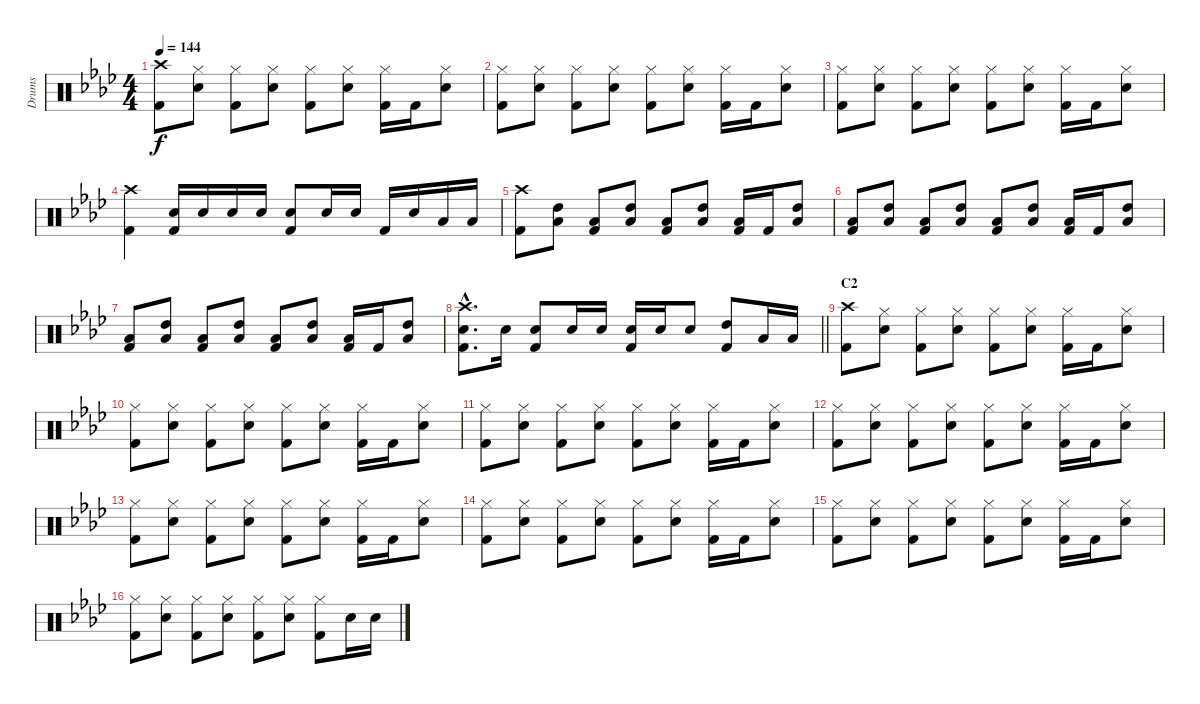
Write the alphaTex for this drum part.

\track ("Drums" "Drums") {instrument percussion}
\staff {score}
\articulation defaults
\ts (4 4)
\tempo 144
\clef neutral
\ks ab
("Crash high (hit)" "Kick (hit) 2").8{dy f} ("Hi-Hat (closed)" "Snare (hit) 2").8 ("Hi-Hat (closed)" "Kick (hit) 2").8 ("Hi-Hat (closed)" "Snare (hit) 2").8 ("Hi-Hat (closed)" "Kick (hit) 2").8 ("Hi-Hat (closed)" "Snare (hit) 2").8 ("Hi-Hat (closed)" "Kick (hit) 2").16 "Kick (hit) 2".16 ("Hi-Hat (closed)" "Snare (hit) 2").8 |
("Hi-Hat (closed)" "Kick (hit) 2").8 ("Hi-Hat (closed)" "Snare (hit) 2").8 ("Hi-Hat (closed)" "Kick (hit) 2").8 ("Hi-Hat (closed)" "Snare (hit) 2").8 ("Hi-Hat (closed)" "Kick (hit) 2").8 ("Hi-Hat (closed)" "Snare (hit) 2").8 ("Hi-Hat (closed)" "Kick (hit) 2").16 "Kick (hit) 2".16 ("Hi-Hat (closed)" "Snare (hit) 2").8 |
("Hi-Hat (closed)" "Kick (hit) 2").8 ("Hi-Hat (closed)" "Snare (hit) 2").8 ("Hi-Hat (closed)" "Kick (hit) 2").8 ("Hi-Hat (closed)" "Snare (hit) 2").8 ("Hi-Hat (closed)" "Kick (hit) 2").8 ("Hi-Hat (closed)" "Snare (hit) 2").8 ("Hi-Hat (closed)" "Kick (hit) 2").16 "Kick (hit) 2".16 ("Hi-Hat (closed)" "Snare (hit) 2").8 |
("Crash high (hit)" "Kick (hit) 2").4 ("Snare (hit) 2" "Kick (hit) 2").16 "Snare (hit) 2".16 "Snare (hit) 2".16 "Snare (hit) 2".16 ("Snare (hit) 2" "Kick (hit) 2").8 "Snare (hit) 2".16 "Snare (hit) 2".16 "Kick (hit) 2".16 "Snare (hit) 2".16 "Low Tom (hit)".16 "Low Tom (hit)".16 |
("Crash high (hit)" "Kick (hit) 2").8 ("High Tom (hit)" "Low Tom (hit)").8 ("Low Tom (hit)" "Kick (hit) 2").8 ("High Tom (hit)" "Low Tom (hit)").8 ("Low Tom (hit)" "Kick (hit) 2").8 ("High Tom (hit)" "Low Tom (hit)").8 ("Low Tom (hit)" "Kick (hit) 2").16 "Kick (hit) 2".16 ("High Tom (hit)" "Low Tom (hit)").8 |
("Low Tom (hit)" "Kick (hit) 2").8 ("High Tom (hit)" "Low Tom (hit)").8 ("Low Tom (hit)" "Kick (hit) 2").8 ("High Tom (hit)" "Low Tom (hit)").8 ("Low Tom (hit)" "Kick (hit) 2").8 ("High Tom (hit)" "Low Tom (hit)").8 ("Low Tom (hit)" "Kick (hit) 2").16 "Kick (hit) 2".16 ("High Tom (hit)" "Low Tom (hit)").8 |
("Low Tom (hit)" "Kick (hit) 2").8 ("High Tom (hit)" "Low Tom (hit)").8 ("Low Tom (hit)" "Kick (hit) 2").8 ("High Tom (hit)" "Low Tom (hit)").8 ("Low Tom (hit)" "Kick (hit) 2").8 ("High Tom (hit)" "Low Tom (hit)").8 ("Low Tom (hit)" "Kick (hit) 2").16 "Kick (hit) 2".16 ("High Tom (hit)" "Low Tom (hit)").8 |
\barLineRight lightlight
("Crash high (hit)"{hac} "Snare (hit) 2"{hac} "Kick (hit) 2"{hac}).8{d} "Snare (hit) 2".16 ("Snare (hit) 2" "Kick (hit) 2").8 "Snare (hit) 2".16 "Snare (hit) 2".16 ("Snare (hit) 2" "Kick (hit) 2").16 "Snare (hit) 2".16 "Snare (hit) 2".8 ("High Tom (hit)" "Kick (hit) 2").8 "Low Tom (hit)".16 "Low Tom (hit)".16 |
\section ("" "C2")
("Crash high (hit)" "Kick (hit) 2").8 ("Hi-Hat (closed)" "Snare (hit) 2").8 ("Hi-Hat (closed)" "Kick (hit) 2").8 ("Hi-Hat (closed)" "Snare (hit) 2").8 ("Hi-Hat (closed)" "Kick (hit) 2").8 ("Hi-Hat (closed)" "Snare (hit) 2").8 ("Hi-Hat (closed)" "Kick (hit) 2").16 "Kick (hit) 2".16 ("Hi-Hat (closed)" "Snare (hit) 2").8 |
("Hi-Hat (closed)" "Kick (hit) 2").8 ("Hi-Hat (closed)" "Snare (hit) 2").8 ("Hi-Hat (closed)" "Kick (hit) 2").8 ("Hi-Hat (closed)" "Snare (hit) 2").8 ("Hi-Hat (closed)" "Kick (hit) 2").8 ("Hi-Hat (closed)" "Snare (hit) 2").8 ("Hi-Hat (closed)" "Kick (hit) 2").16 "Kick (hit) 2".16 ("Hi-Hat (closed)" "Snare (hit) 2").8 |
("Hi-Hat (closed)" "Kick (hit) 2").8 ("Hi-Hat (closed)" "Snare (hit) 2").8 ("Hi-Hat (closed)" "Kick (hit) 2").8 ("Hi-Hat (closed)" "Snare (hit) 2").8 ("Hi-Hat (closed)" "Kick (hit) 2").8 ("Hi-Hat (closed)" "Snare (hit) 2").8 ("Hi-Hat (closed)" "Kick (hit) 2").16 "Kick (hit) 2".16 ("Hi-Hat (closed)" "Snare (hit) 2").8 |
("Hi-Hat (closed)" "Kick (hit) 2").8 ("Hi-Hat (closed)" "Snare (hit) 2").8 ("Hi-Hat (closed)" "Kick (hit) 2").8 ("Hi-Hat (closed)" "Snare (hit) 2").8 ("Hi-Hat (closed)" "Kick (hit) 2").8 ("Hi-Hat (closed)" "Snare (hit) 2").8 ("Hi-Hat (closed)" "Kick (hit) 2").16 "Kick (hit) 2".16 ("Hi-Hat (closed)" "Snare (hit) 2").8 |
("Hi-Hat (closed)" "Kick (hit) 2").8 ("Hi-Hat (closed)" "Snare (hit) 2").8 ("Hi-Hat (closed)" "Kick (hit) 2").8 ("Hi-Hat (closed)" "Snare (hit) 2").8 ("Hi-Hat (closed)" "Kick (hit) 2").8 ("Hi-Hat (closed)" "Snare (hit) 2").8 ("Hi-Hat (closed)" "Kick (hit) 2").16 "Kick (hit) 2".16 ("Hi-Hat (closed)" "Snare (hit) 2").8 |
("Hi-Hat (closed)" "Kick (hit) 2").8 ("Hi-Hat (closed)" "Snare (hit) 2").8 ("Hi-Hat (closed)" "Kick (hit) 2").8 ("Hi-Hat (closed)" "Snare (hit) 2").8 ("Hi-Hat (closed)" "Kick (hit) 2").8 ("Hi-Hat (closed)" "Snare (hit) 2").8 ("Hi-Hat (closed)" "Kick (hit) 2").16 "Kick (hit) 2".16 ("Hi-Hat (closed)" "Snare (hit) 2").8 |
("Hi-Hat (closed)" "Kick (hit) 2").8 ("Hi-Hat (closed)" "Snare (hit) 2").8 ("Hi-Hat (closed)" "Kick (hit) 2").8 ("Hi-Hat (closed)" "Snare (hit) 2").8 ("Hi-Hat (closed)" "Kick (hit) 2").8 ("Hi-Hat (closed)" "Snare (hit) 2").8 ("Hi-Hat (closed)" "Kick (hit) 2").16 "Kick (hit) 2".16 ("Hi-Hat (closed)" "Snare (hit) 2").8 |
("Hi-Hat (closed)" "Kick (hit) 2").8 ("Hi-Hat (closed)" "Snare (hit) 2").8 ("Hi-Hat (closed)" "Kick (hit) 2").8 ("Hi-Hat (closed)" "Snare (hit) 2").8 ("Hi-Hat (closed)" "Kick (hit) 2").8 ("Hi-Hat (closed)" "Snare (hit) 2").8 ("Hi-Hat (closed)" "Kick (hit) 2").8 "Snare (hit) 2".16 "Snare (hit) 2".16
